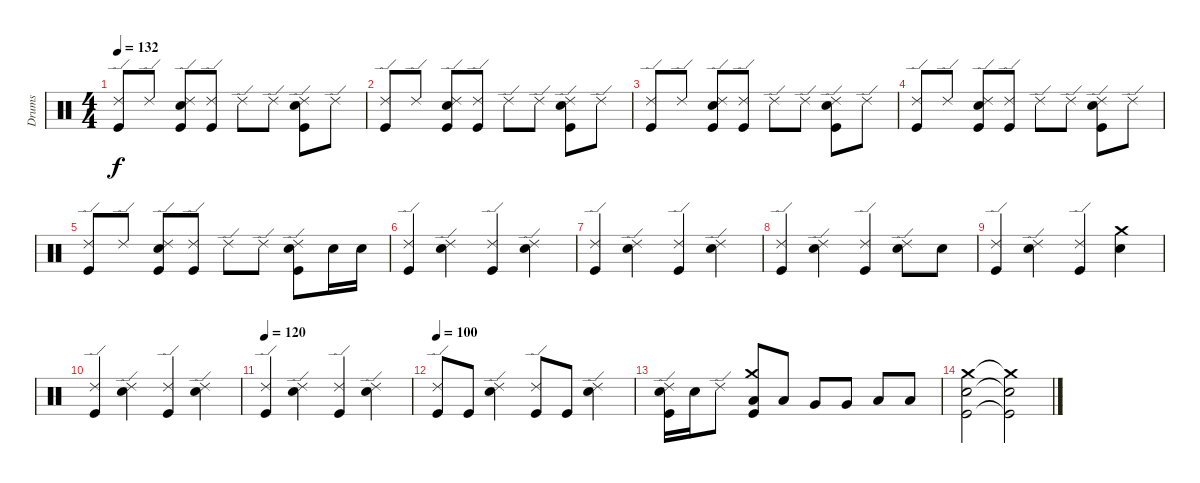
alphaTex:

\track ("Drums" "Drums") {instrument percussion}
\staff {score}
\articulation defaults
\ts (4 4)
\tempo 132
\clef neutral
\ks c
("Ride (edge) 2" "Kick (hit)").8{dy f} "Ride (edge) 2".8 ("Ride (edge) 2" "Snare (hit) 2" "Kick (hit)").8 ("Ride (edge) 2" "Kick (hit)").8 "Ride (edge) 2".8 "Ride (edge) 2".8 ("Ride (edge) 2" "Snare (hit) 2" "Kick (hit)").8 "Ride (edge) 2".8 |
("Ride (edge) 2" "Kick (hit)").8 "Ride (edge) 2".8 ("Ride (edge) 2" "Snare (hit) 2" "Kick (hit)").8 ("Ride (edge) 2" "Kick (hit)").8 "Ride (edge) 2".8 "Ride (edge) 2".8 ("Ride (edge) 2" "Snare (hit) 2" "Kick (hit)").8 "Ride (edge) 2".8 |
("Ride (edge) 2" "Kick (hit)").8 "Ride (edge) 2".8 ("Ride (edge) 2" "Snare (hit) 2" "Kick (hit)").8 ("Ride (edge) 2" "Kick (hit)").8 "Ride (edge) 2".8 "Ride (edge) 2".8 ("Ride (edge) 2" "Snare (hit) 2" "Kick (hit)").8 "Ride (edge) 2".8 |
("Ride (edge) 2" "Kick (hit)").8 "Ride (edge) 2".8 ("Ride (edge) 2" "Snare (hit) 2" "Kick (hit)").8 ("Ride (edge) 2" "Kick (hit)").8 "Ride (edge) 2".8 "Ride (edge) 2".8 ("Ride (edge) 2" "Snare (hit) 2" "Kick (hit)").8 "Ride (edge) 2".8 |
("Ride (edge) 2" "Kick (hit)").8 "Ride (edge) 2".8 ("Ride (edge) 2" "Snare (hit) 2" "Kick (hit)").8 ("Ride (edge) 2" "Kick (hit)").8 "Ride (edge) 2".8 "Ride (edge) 2".8 ("Ride (edge) 2" "Snare (hit) 2" "Kick (hit)").8 "Snare (hit) 2".16 "Snare (hit) 2".16 |
("Ride (edge) 2" "Kick (hit)").4 ("Ride (edge) 2" "Snare (hit) 2").4 ("Ride (edge) 2" "Kick (hit)").4 ("Ride (edge) 2" "Snare (hit) 2").4 |
("Ride (edge) 2" "Kick (hit)").4 ("Ride (edge) 2" "Snare (hit) 2").4 ("Ride (edge) 2" "Kick (hit)").4 ("Ride (edge) 2" "Snare (hit) 2").4 |
("Ride (edge) 2" "Kick (hit)").4 ("Ride (edge) 2" "Snare (hit) 2").4 ("Ride (edge) 2" "Kick (hit)").4 ("Ride (edge) 2" "Snare (hit) 2").8 "Snare (hit) 2".8 |
("Ride (edge) 2" "Kick (hit)").4 ("Ride (edge) 2" "Snare (hit) 2").4 ("Ride (edge) 2" "Kick (hit)").4 ("Crash medium (hit)" "Snare (hit) 2").4 |
("Ride (edge) 2" "Kick (hit)").4 ("Ride (edge) 2" "Snare (hit) 2").4 ("Ride (edge) 2" "Kick (hit)").4 ("Ride (edge) 2" "Snare (hit) 2").4 |
\tempo 120
("Ride (edge) 2" "Kick (hit)").4 ("Ride (edge) 2" "Snare (hit) 2").4 ("Ride (edge) 2" "Kick (hit)").4 ("Ride (edge) 2" "Snare (hit) 2").4 |
\tempo 100
("Ride (edge) 2" "Kick (hit)").8 "Kick (hit)".8 ("Ride (edge) 2" "Snare (hit) 2").4 ("Ride (edge) 2" "Kick (hit)").8 "Kick (hit)".8 ("Ride (edge) 2" "Snare (hit) 2").4 |
("Ride (edge) 2" "Snare (hit) 2" "Kick (hit)").16 "Snare (hit) 2".16 "Ride (edge) 2".8 ("Crash medium (hit)" "Low Tom (hit)" "Kick (hit)").8 "Low Tom (hit)".8 "Very Low Tom (hit)".8 "Very Low Tom (hit)".8 "Low Floor Tom (hit)".8 "Low Floor Tom (hit)".8 |
("Crash medium (hit)" "Snare (hit) 2" "Kick (hit)").2 ("Crash medium (hit)"{t} "Snare (hit) 2"{t} "Kick (hit)"{t}).2
